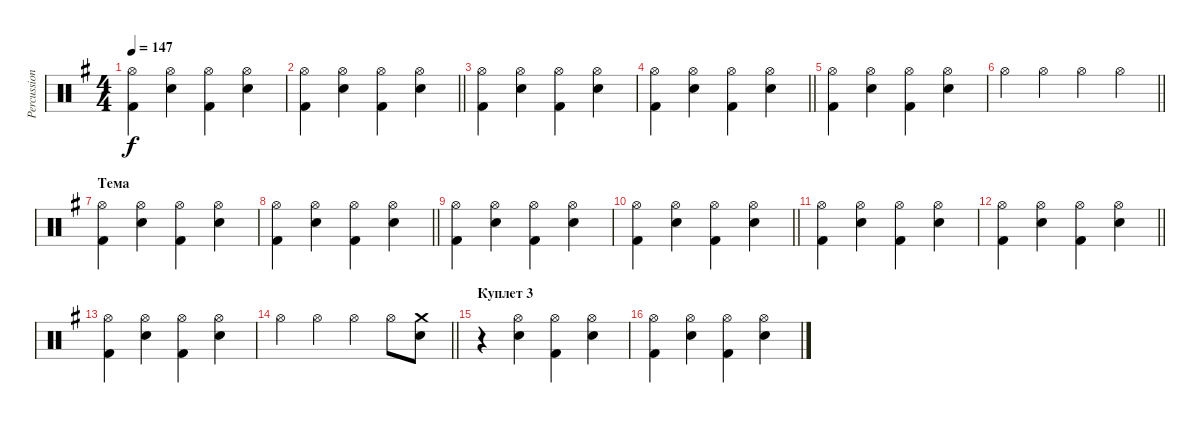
\track ("Percussion" "Percussion") {instrument percussion}
\staff {score}
\articulation defaults
\ts (4 4)
\tempo 147
\clef neutral
\ks eminor
("Hi-Hat (open)" "Kick (hit) 2").4{dy f} ("Hi-Hat (open)" "Snare (hit) 2").4 ("Hi-Hat (open)" "Kick (hit) 2").4 ("Hi-Hat (open)" "Snare (hit) 2").4 |
\barLineRight lightlight
("Hi-Hat (open)" "Kick (hit) 2").4 ("Hi-Hat (open)" "Snare (hit) 2").4 ("Hi-Hat (open)" "Kick (hit) 2").4 ("Hi-Hat (open)" "Snare (hit) 2").4 |
("Hi-Hat (open)" "Kick (hit) 2").4 ("Hi-Hat (open)" "Snare (hit) 2").4 ("Hi-Hat (open)" "Kick (hit) 2").4 ("Hi-Hat (open)" "Snare (hit) 2").4 |
\barLineRight lightlight
("Hi-Hat (open)" "Kick (hit) 2").4 ("Hi-Hat (open)" "Snare (hit) 2").4 ("Hi-Hat (open)" "Kick (hit) 2").4 ("Hi-Hat (open)" "Snare (hit) 2").4 |
("Hi-Hat (open)" "Kick (hit) 2").4 ("Hi-Hat (open)" "Snare (hit) 2").4 ("Hi-Hat (open)" "Kick (hit) 2").4 ("Hi-Hat (open)" "Snare (hit) 2").4 |
\barLineRight lightlight "Hi-Hat (open)".4 "Hi-Hat (open)".4 "Hi-Hat (open)".4 "Hi-Hat (open)".4
|
\section ("" "Тема")
("Hi-Hat (open)" "Kick (hit) 2").4 ("Hi-Hat (open)" "Snare (hit) 2").4 ("Hi-Hat (open)" "Kick (hit) 2").4 ("Hi-Hat (open)" "Snare (hit) 2").4 |
\barLineRight lightlight
("Hi-Hat (open)" "Kick (hit) 2").4 ("Hi-Hat (open)" "Snare (hit) 2").4 ("Hi-Hat (open)" "Kick (hit) 2").4 ("Hi-Hat (open)" "Snare (hit) 2").4 |
("Hi-Hat (open)" "Kick (hit) 2").4 ("Hi-Hat (open)" "Snare (hit) 2").4 ("Hi-Hat (open)" "Kick (hit) 2").4 ("Hi-Hat (open)" "Snare (hit) 2").4 |
\barLineRight lightlight
("Hi-Hat (open)" "Kick (hit) 2").4 ("Hi-Hat (open)" "Snare (hit) 2").4 ("Hi-Hat (open)" "Kick (hit) 2").4 ("Hi-Hat (open)" "Snare (hit) 2").4 |
("Hi-Hat (open)" "Kick (hit) 2").4 ("Hi-Hat (open)" "Snare (hit) 2").4 ("Hi-Hat (open)" "Kick (hit) 2").4 ("Hi-Hat (open)" "Snare (hit) 2").4 |
\barLineRight lightlight
("Hi-Hat (open)" "Kick (hit) 2").4 ("Hi-Hat (open)" "Snare (hit) 2").4 ("Hi-Hat (open)" "Kick (hit) 2").4 ("Hi-Hat (open)" "Snare (hit) 2").4 |
("Hi-Hat (open)" "Kick (hit) 2").4 ("Hi-Hat (open)" "Snare (hit) 2").4 ("Hi-Hat (open)" "Kick (hit) 2").4 ("Hi-Hat (open)" "Snare (hit) 2").4 |
\barLineRight lightlight "Hi-Hat (open)".4 "Hi-Hat (open)".4 "Hi-Hat (open)".4 "Hi-Hat (open)".8
("Crash medium (hit)" "Snare (hit)").8 |
\section ("" "Куплет 3")
r.4 ("Hi-Hat (open)" "Snare (hit) 2").4 ("Hi-Hat (open)" "Kick (hit) 2").4 ("Hi-Hat (open)" "Snare (hit) 2").4 |
("Hi-Hat (open)" "Kick (hit) 2").4 ("Hi-Hat (open)" "Snare (hit) 2").4 ("Hi-Hat (open)" "Kick (hit) 2").4 ("Hi-Hat (open)" "Snare (hit) 2").4
